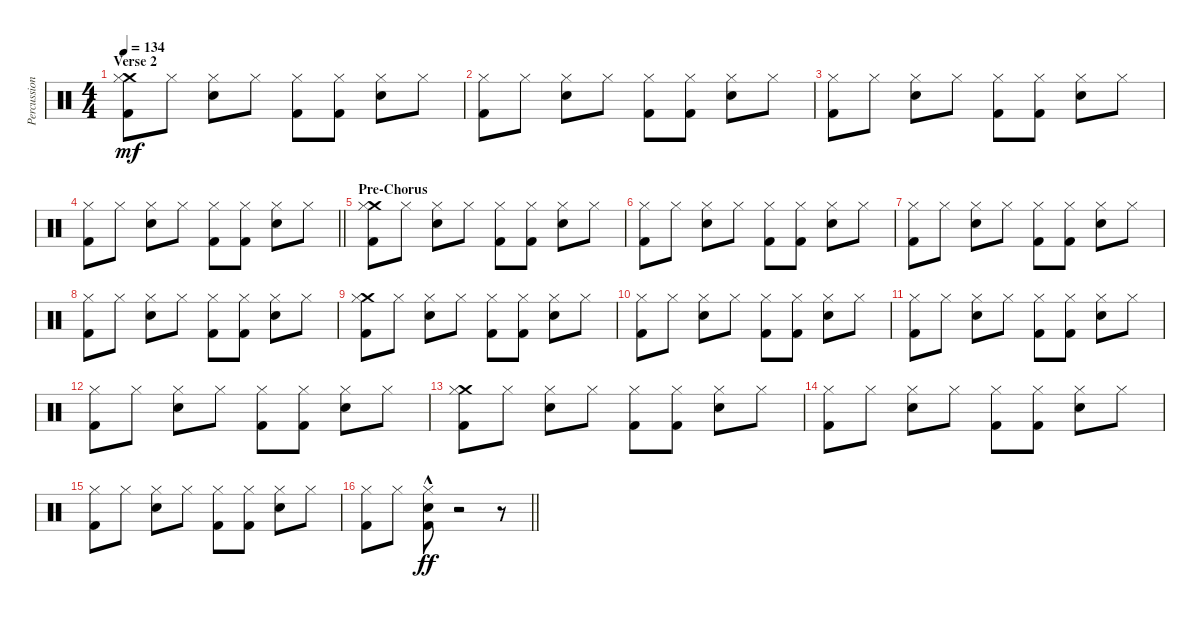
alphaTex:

\track ("Percussion" "Percussion") {instrument percussion}
\staff {score}
\articulation defaults
\ts (4 4)
\section ("" "Verse 2")
\tempo 134
\clef neutral
\ks c
("Crash medium (hit)" "Hi-Hat (closed)" "Kick (hit) 2").8{dy mf} "Hi-Hat (closed)".8 ("Hi-Hat (closed)" "Snare (hit) 2").8 "Hi-Hat (closed)".8 ("Hi-Hat (closed)" "Kick (hit) 2").8 ("Hi-Hat (closed)" "Kick (hit) 2").8 ("Hi-Hat (closed)" "Snare (hit) 2").8 "Hi-Hat (closed)".8 |
("Hi-Hat (closed)" "Kick (hit) 2").8 "Hi-Hat (closed)".8 ("Hi-Hat (closed)" "Snare (hit) 2").8 "Hi-Hat (closed)".8 ("Hi-Hat (closed)" "Kick (hit) 2").8 ("Hi-Hat (closed)" "Kick (hit) 2").8 ("Hi-Hat (closed)" "Snare (hit) 2").8 "Hi-Hat (closed)".8 |
("Hi-Hat (closed)" "Kick (hit) 2").8 "Hi-Hat (closed)".8 ("Hi-Hat (closed)" "Snare (hit) 2").8 "Hi-Hat (closed)".8 ("Hi-Hat (closed)" "Kick (hit) 2").8 ("Hi-Hat (closed)" "Kick (hit) 2").8 ("Hi-Hat (closed)" "Snare (hit) 2").8 "Hi-Hat (closed)".8 |
\barLineRight lightlight
("Hi-Hat (closed)" "Kick (hit) 2").8 "Hi-Hat (closed)".8 ("Hi-Hat (closed)" "Snare (hit) 2").8 "Hi-Hat (closed)".8 ("Hi-Hat (closed)" "Kick (hit) 2").8 ("Hi-Hat (closed)" "Kick (hit) 2").8 ("Hi-Hat (closed)" "Snare (hit) 2").8 "Hi-Hat (closed)".8 |
\section ("" "Pre-Chorus")
("Crash medium (hit)" "Hi-Hat (closed)" "Kick (hit) 2").8 "Hi-Hat (closed)".8 ("Hi-Hat (closed)" "Snare (hit) 2").8 "Hi-Hat (closed)".8 ("Hi-Hat (closed)" "Kick (hit) 2").8 ("Hi-Hat (closed)" "Kick (hit) 2").8 ("Hi-Hat (closed)" "Snare (hit) 2").8 "Hi-Hat (closed)".8 |
("Hi-Hat (closed)" "Kick (hit) 2").8 "Hi-Hat (closed)".8 ("Hi-Hat (closed)" "Snare (hit) 2").8 "Hi-Hat (closed)".8 ("Hi-Hat (closed)" "Kick (hit) 2").8 ("Hi-Hat (closed)" "Kick (hit) 2").8 ("Hi-Hat (closed)" "Snare (hit) 2").8 "Hi-Hat (closed)".8 |
("Hi-Hat (closed)" "Kick (hit) 2").8 "Hi-Hat (closed)".8 ("Hi-Hat (closed)" "Snare (hit) 2").8 "Hi-Hat (closed)".8 ("Hi-Hat (closed)" "Kick (hit) 2").8 ("Hi-Hat (closed)" "Kick (hit) 2").8 ("Hi-Hat (closed)" "Snare (hit) 2").8 "Hi-Hat (closed)".8 |
("Hi-Hat (closed)" "Kick (hit) 2").8 "Hi-Hat (closed)".8 ("Hi-Hat (closed)" "Snare (hit) 2").8 "Hi-Hat (closed)".8 ("Hi-Hat (closed)" "Kick (hit) 2").8 ("Hi-Hat (closed)" "Kick (hit) 2").8 ("Hi-Hat (closed)" "Snare (hit) 2").8 "Hi-Hat (closed)".8 |
("Crash medium (hit)" "Hi-Hat (closed)" "Kick (hit) 2").8 "Hi-Hat (closed)".8 ("Hi-Hat (closed)" "Snare (hit) 2").8 "Hi-Hat (closed)".8 ("Hi-Hat (closed)" "Kick (hit) 2").8 ("Hi-Hat (closed)" "Kick (hit) 2").8 ("Hi-Hat (closed)" "Snare (hit) 2").8 "Hi-Hat (closed)".8 |
("Hi-Hat (closed)" "Kick (hit) 2").8 "Hi-Hat (closed)".8 ("Hi-Hat (closed)" "Snare (hit) 2").8 "Hi-Hat (closed)".8 ("Hi-Hat (closed)" "Kick (hit) 2").8 ("Hi-Hat (closed)" "Kick (hit) 2").8 ("Hi-Hat (closed)" "Snare (hit) 2").8 "Hi-Hat (closed)".8 |
("Hi-Hat (closed)" "Kick (hit) 2").8 "Hi-Hat (closed)".8 ("Hi-Hat (closed)" "Snare (hit) 2").8 "Hi-Hat (closed)".8 ("Hi-Hat (closed)" "Kick (hit) 2").8 ("Hi-Hat (closed)" "Kick (hit) 2").8 ("Hi-Hat (closed)" "Snare (hit) 2").8 "Hi-Hat (closed)".8 |
("Hi-Hat (closed)" "Kick (hit) 2").8 "Hi-Hat (closed)".8 ("Hi-Hat (closed)" "Snare (hit) 2").8 "Hi-Hat (closed)".8 ("Hi-Hat (closed)" "Kick (hit) 2").8 ("Hi-Hat (closed)" "Kick (hit) 2").8 ("Hi-Hat (closed)" "Snare (hit) 2").8 "Hi-Hat (closed)".8 |
("Crash medium (hit)" "Hi-Hat (closed)" "Kick (hit) 2").8 "Hi-Hat (closed)".8 ("Hi-Hat (closed)" "Snare (hit) 2").8 "Hi-Hat (closed)".8 ("Hi-Hat (closed)" "Kick (hit) 2").8 ("Hi-Hat (closed)" "Kick (hit) 2").8 ("Hi-Hat (closed)" "Snare (hit) 2").8 "Hi-Hat (closed)".8 |
("Hi-Hat (closed)" "Kick (hit) 2").8 "Hi-Hat (closed)".8 ("Hi-Hat (closed)" "Snare (hit) 2").8 "Hi-Hat (closed)".8 ("Hi-Hat (closed)" "Kick (hit) 2").8 ("Hi-Hat (closed)" "Kick (hit) 2").8 ("Hi-Hat (closed)" "Snare (hit) 2").8 "Hi-Hat (closed)".8 |
("Hi-Hat (closed)" "Kick (hit) 2").8 "Hi-Hat (closed)".8 ("Hi-Hat (closed)" "Snare (hit) 2").8 "Hi-Hat (closed)".8 ("Hi-Hat (closed)" "Kick (hit) 2").8 ("Hi-Hat (closed)" "Kick (hit) 2").8 ("Hi-Hat (closed)" "Snare (hit) 2").8 "Hi-Hat (closed)".8 |
\barLineRight lightlight
("Hi-Hat (closed)" "Kick (hit) 2").8 "Hi-Hat (closed)".8 ("Hi-Hat (closed)"{hac} "Snare (hit) 2"{hac} "Kick (hit) 2"{hac}).8{dy ff} r.2 r.8
